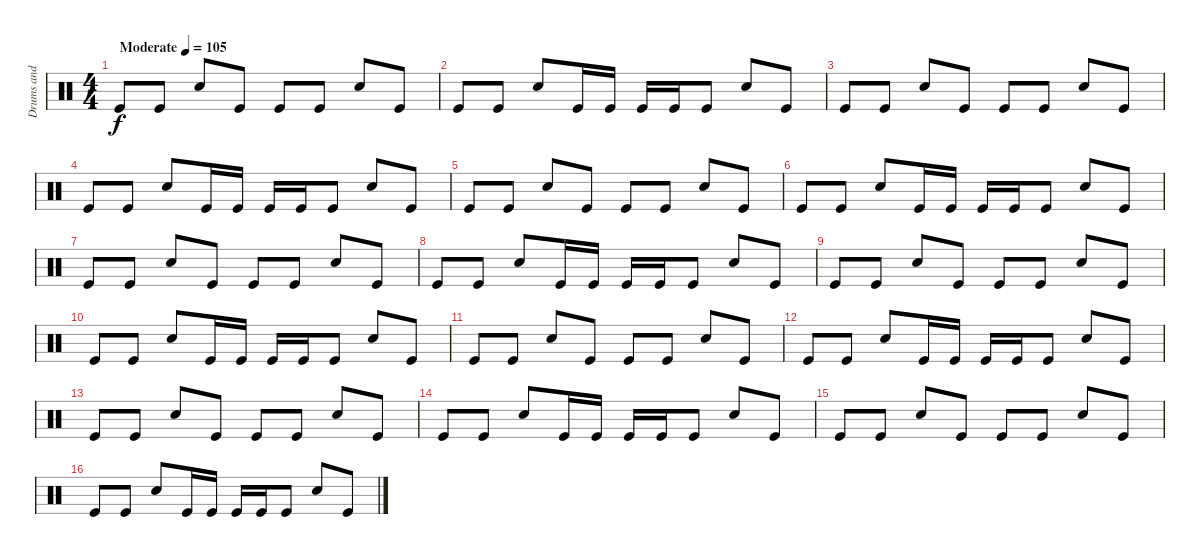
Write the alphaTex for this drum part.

\track ("Drums and loops" "Drums and ") {instrument percussion}
\staff {score}
\articulation defaults
\ts (4 4)
\tempo (105 "Moderate")
\clef neutral
\ks c "Kick (hit)".8{dy f} "Kick (hit)".8 "Electric Snare (hit)".8 "Kick (hit)".8 "Kick (hit)".8 "Kick (hit)".8 "Electric Snare (hit)".8 "Kick (hit)".8
|
"Kick (hit)".8 "Kick (hit)".8 "Electric Snare (hit)".8 "Kick (hit)".16 "Kick (hit)".16 "Kick (hit)".16 "Kick (hit)".16 "Kick (hit)".8 "Electric Snare (hit)".8 "Kick (hit)".8 |
"Kick (hit)".8 "Kick (hit)".8 "Electric Snare (hit)".8 "Kick (hit)".8 "Kick (hit)".8 "Kick (hit)".8 "Electric Snare (hit)".8 "Kick (hit)".8 |
"Kick (hit)".8 "Kick (hit)".8 "Electric Snare (hit)".8 "Kick (hit)".16 "Kick (hit)".16 "Kick (hit)".16 "Kick (hit)".16 "Kick (hit)".8 "Electric Snare (hit)".8 "Kick (hit)".8 |
"Kick (hit)".8 "Kick (hit)".8 "Electric Snare (hit)".8 "Kick (hit)".8 "Kick (hit)".8 "Kick (hit)".8 "Electric Snare (hit)".8 "Kick (hit)".8 |
"Kick (hit)".8 "Kick (hit)".8 "Electric Snare (hit)".8 "Kick (hit)".16 "Kick (hit)".16 "Kick (hit)".16 "Kick (hit)".16 "Kick (hit)".8 "Electric Snare (hit)".8 "Kick (hit)".8 |
"Kick (hit)".8 "Kick (hit)".8 "Electric Snare (hit)".8 "Kick (hit)".8 "Kick (hit)".8 "Kick (hit)".8 "Electric Snare (hit)".8 "Kick (hit)".8 |
"Kick (hit)".8 "Kick (hit)".8 "Electric Snare (hit)".8 "Kick (hit)".16 "Kick (hit)".16 "Kick (hit)".16 "Kick (hit)".16 "Kick (hit)".8 "Electric Snare (hit)".8 "Kick (hit)".8 |
"Kick (hit)".8 "Kick (hit)".8 "Electric Snare (hit)".8 "Kick (hit)".8 "Kick (hit)".8 "Kick (hit)".8 "Electric Snare (hit)".8 "Kick (hit)".8 |
"Kick (hit)".8 "Kick (hit)".8 "Electric Snare (hit)".8 "Kick (hit)".16 "Kick (hit)".16 "Kick (hit)".16 "Kick (hit)".16 "Kick (hit)".8 "Electric Snare (hit)".8 "Kick (hit)".8 |
"Kick (hit)".8 "Kick (hit)".8 "Electric Snare (hit)".8 "Kick (hit)".8 "Kick (hit)".8 "Kick (hit)".8 "Electric Snare (hit)".8 "Kick (hit)".8 |
"Kick (hit)".8 "Kick (hit)".8 "Electric Snare (hit)".8 "Kick (hit)".16 "Kick (hit)".16 "Kick (hit)".16 "Kick (hit)".16 "Kick (hit)".8 "Electric Snare (hit)".8 "Kick (hit)".8 |
"Kick (hit)".8 "Kick (hit)".8 "Electric Snare (hit)".8 "Kick (hit)".8 "Kick (hit)".8 "Kick (hit)".8 "Electric Snare (hit)".8 "Kick (hit)".8 |
"Kick (hit)".8 "Kick (hit)".8 "Electric Snare (hit)".8 "Kick (hit)".16 "Kick (hit)".16 "Kick (hit)".16 "Kick (hit)".16 "Kick (hit)".8 "Electric Snare (hit)".8 "Kick (hit)".8 |
"Kick (hit)".8 "Kick (hit)".8 "Electric Snare (hit)".8 "Kick (hit)".8 "Kick (hit)".8 "Kick (hit)".8 "Electric Snare (hit)".8 "Kick (hit)".8 |
"Kick (hit)".8 "Kick (hit)".8 "Electric Snare (hit)".8 "Kick (hit)".16 "Kick (hit)".16 "Kick (hit)".16 "Kick (hit)".16 "Kick (hit)".8 "Electric Snare (hit)".8 "Kick (hit)".8
